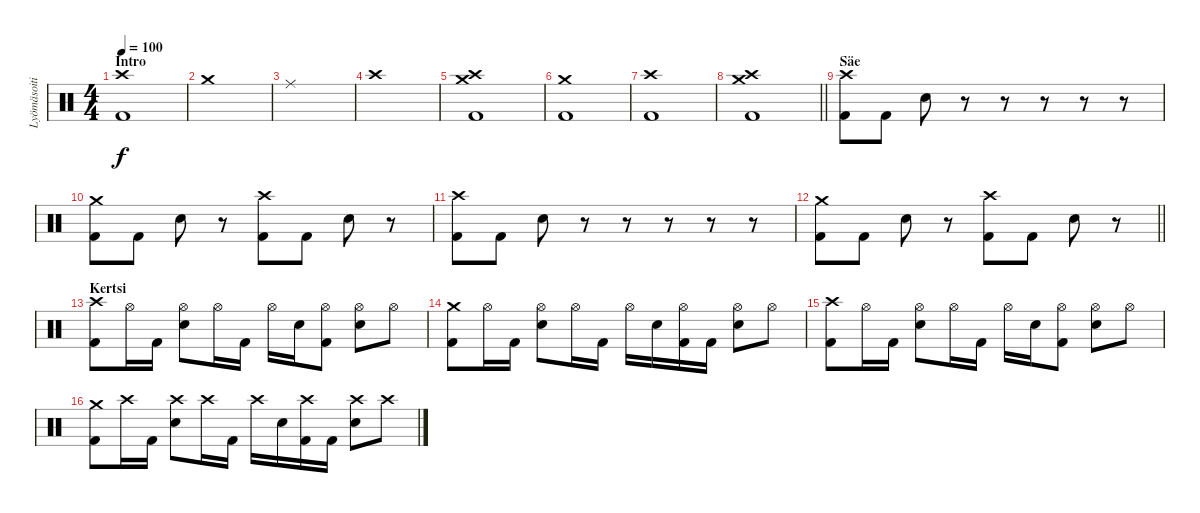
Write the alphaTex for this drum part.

\track ("Lyömäsoitin" "Lyömäsoiti") {instrument percussion}
\staff {score}
\articulation defaults
\ts (4 4)
\section ("" "Intro")
\tempo 100
\clef neutral
\ks c
("Crash high (hit)" "Kick (hit) 2").1{dy f} |
"Crash medium (hit)".1 |
"Ride (middle)".1 |
"Crash high (hit)".1 |
("Crash medium (hit)" "Crash high (hit)" "Kick (hit) 2").1 |
("Crash medium (hit)" "Kick (hit) 2").1 |
("Crash high (hit)" "Kick (hit) 2").1 |
\barLineRight lightlight
("Crash medium (hit)" "Crash high (hit)" "Kick (hit) 2").1 |
\section ("" "Säe")
("Crash high (hit)" "Kick (hit) 2").8 "Kick (hit) 2".8 "Snare (hit) 2".8 r.8 r.8 r.8 r.8 r.8 |
("Crash medium (hit)" "Kick (hit) 2").8 "Kick (hit) 2".8 "Snare (hit) 2".8 r.8 ("Crash high (hit)" "Kick (hit) 2").8 "Kick (hit) 2".8 "Snare (hit) 2".8 r.8 |
("Crash high (hit)" "Kick (hit) 2").8 "Kick (hit) 2".8 "Snare (hit) 2".8 r.8 r.8 r.8 r.8 r.8 |
\barLineRight lightlight
("Crash medium (hit)" "Kick (hit) 2").8 "Kick (hit) 2".8 "Snare (hit) 2".8 r.8 ("Crash high (hit)" "Kick (hit) 2").8 "Kick (hit) 2".8 "Snare (hit) 2".8 r.8 |
\section ("" "Kertsi")
("Crash high (hit)" "Kick (hit) 2").8 "Hi-Hat (open)".16 "Kick (hit) 2".16 ("Hi-Hat (open)" "Snare (hit) 2").8 "Hi-Hat (open)".16 "Kick (hit) 2".16 "Hi-Hat (open)".16 "Snare (hit) 2".16 ("Hi-Hat (open)" "Kick (hit) 2").8 ("Hi-Hat (open)" "Snare (hit) 2").8 "Hi-Hat (open)".8 |
("Crash medium (hit)" "Kick (hit) 2").8 "Hi-Hat (open)".16 "Kick (hit) 2".16 ("Hi-Hat (open)" "Snare (hit) 2").8 "Hi-Hat (open)".16 "Kick (hit) 2".16 "Hi-Hat (open)".16 "Snare (hit) 2".16 ("Hi-Hat (open)" "Kick (hit) 2").16 "Kick (hit) 2".16 ("Hi-Hat (open)" "Snare (hit) 2").8 "Hi-Hat (open)".8 |
("Crash high (hit)" "Kick (hit) 2").8 "Hi-Hat (open)".16 "Kick (hit) 2".16 ("Hi-Hat (open)" "Snare (hit) 2").8 "Hi-Hat (open)".16 "Kick (hit) 2".16 "Hi-Hat (open)".16 "Snare (hit) 2".16 ("Hi-Hat (open)" "Kick (hit) 2").8 ("Hi-Hat (open)" "Snare (hit) 2").8 "Hi-Hat (open)".8 |
("Crash medium (hit)" "Kick (hit) 2").8 "Crash high (hit)".16 "Kick (hit) 2".16 ("Crash high (hit)" "Snare (hit) 2").8 "Crash high (hit)".16 "Kick (hit) 2".16 "Crash high (hit)".16 "Snare (hit) 2".16 ("Crash high (hit)" "Kick (hit) 2").16 "Kick (hit) 2".16 ("Crash high (hit)" "Snare (hit) 2").8 "Crash high (hit)".8
